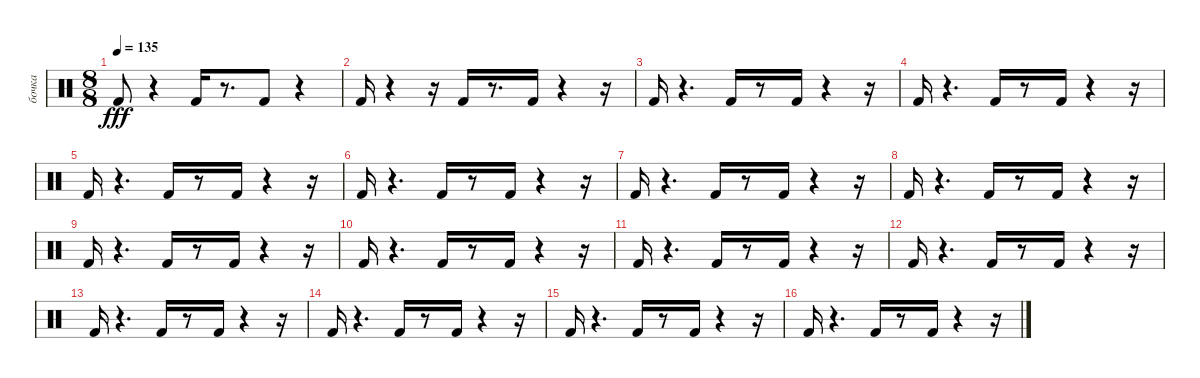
\track ("бочка" "бочка") {instrument percussion}
\staff {score}
\articulation defaults
\ts (8 8)
\tempo 135
\clef neutral
\ks c "Kick (hit) 2".8{dy fff}
r.4 "Kick (hit) 2".16 r.8{d} "Kick (hit) 2".8 r.4 |
"Kick (hit) 2".16 r.4 r.16 "Kick (hit) 2".16 r.8{d} "Kick (hit) 2".16 r.4 r.16 |
"Kick (hit) 2".16 r.4{d} "Kick (hit) 2".16 r.8 "Kick (hit) 2".16 r.4 r.16 |
"Kick (hit) 2".16 r.4{d} "Kick (hit) 2".16 r.8 "Kick (hit) 2".16 r.4 r.16 |
"Kick (hit) 2".16 r.4{d} "Kick (hit) 2".16 r.8 "Kick (hit) 2".16 r.4 r.16 |
"Kick (hit) 2".16 r.4{d} "Kick (hit) 2".16 r.8 "Kick (hit) 2".16 r.4 r.16 |
"Kick (hit) 2".16 r.4{d} "Kick (hit) 2".16 r.8 "Kick (hit) 2".16 r.4 r.16 |
"Kick (hit) 2".16 r.4{d} "Kick (hit) 2".16 r.8 "Kick (hit) 2".16 r.4 r.16 |
"Kick (hit) 2".16 r.4{d} "Kick (hit) 2".16 r.8 "Kick (hit) 2".16 r.4 r.16 |
"Kick (hit) 2".16 r.4{d} "Kick (hit) 2".16 r.8 "Kick (hit) 2".16 r.4 r.16 |
"Kick (hit) 2".16 r.4{d} "Kick (hit) 2".16 r.8 "Kick (hit) 2".16 r.4 r.16 |
"Kick (hit) 2".16 r.4{d} "Kick (hit) 2".16 r.8 "Kick (hit) 2".16 r.4 r.16 |
"Kick (hit) 2".16 r.4{d} "Kick (hit) 2".16 r.8 "Kick (hit) 2".16 r.4 r.16 |
"Kick (hit) 2".16 r.4{d} "Kick (hit) 2".16 r.8 "Kick (hit) 2".16 r.4 r.16 |
"Kick (hit) 2".16 r.4{d} "Kick (hit) 2".16 r.8 "Kick (hit) 2".16 r.4 r.16 |
"Kick (hit) 2".16 r.4{d} "Kick (hit) 2".16 r.8 "Kick (hit) 2".16 r.4 r.16
